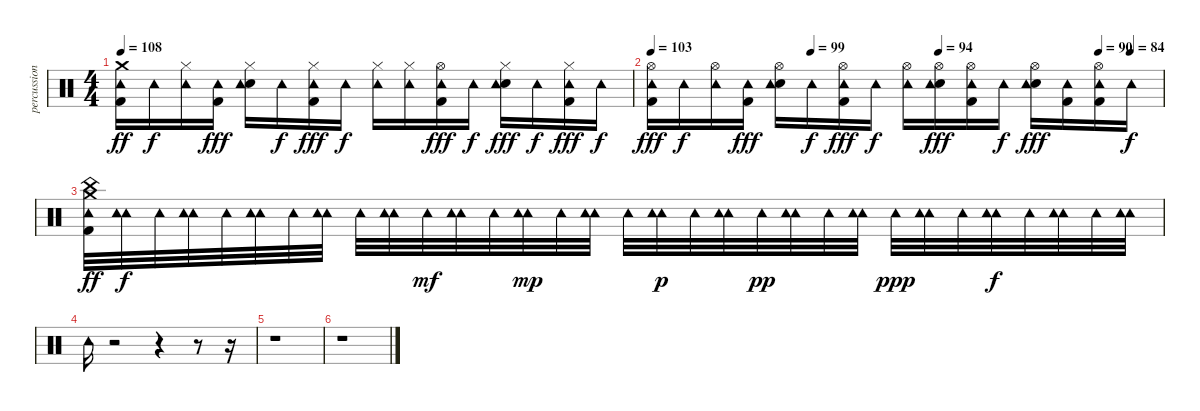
\track ("percussion" "percussion") {instrument percussion}
\staff {score}
\articulation defaults
\ts (4 4)
\tempo 108
\clef neutral
\ks c
("Kick (hit) 2" "Crash medium (hit)" "Tambourine (hit)").16{dy ff} "Tambourine (hit)".16{dy f} ("Hi-Hat (closed)" "Tambourine (hit)").16 ("Kick (hit) 2" "Tambourine (hit)").16{dy fff} ("Hi-Hat (closed)" "Electric Snare (hit)" "Tambourine (hit)").16 "Tambourine (hit)".16{dy f} ("Hi-Hat (closed)" "Kick (hit) 2" "Tambourine (hit)").16{dy fff} "Tambourine (hit)".16{dy f} ("Hi-Hat (closed)" "Tambourine (hit)").16 ("Hi-Hat (closed)" "Tambourine (hit)").16 ("Kick (hit) 2" "Hi-Hat (open)" "Tambourine (hit)").16{dy fff} "Tambourine (hit)".16{dy f} ("Hi-Hat (closed)" "Electric Snare (hit)" "Tambourine (hit)").16{dy fff} "Tambourine (hit)".16{dy f} ("Kick (hit) 2" "Hi-Hat (closed)" "Tambourine (hit)").16{dy fff} "Tambourine (hit)".16{dy f} |
\tempo 103
\tempo (99 0.3125)
\tempo (94 0.5625)
\tempo (90 0.875)
\tempo (84 0.9375)
("Kick (hit) 2" "Hi-Hat (open)" "Tambourine (hit)").16{dy fff} "Tambourine (hit)".16{dy f} ("Hi-Hat (open)" "Tambourine (hit)").16 ("Kick (hit) 2" "Tambourine (hit)").16{dy fff} ("Hi-Hat (open)" "Electric Snare (hit)" "Tambourine (hit)").16 "Tambourine (hit)".16{dy f} ("Hi-Hat (open)" "Kick (hit) 2" "Tambourine (hit)").16{dy fff} "Tambourine (hit)".16{dy f} ("Hi-Hat (open)" "Tambourine (hit)").16 ("Electric Snare (hit)" "Hi-Hat (open)" "Tambourine (hit)").16{dy fff} ("Kick (hit) 2" "Hi-Hat (open)" "Tambourine (hit)").16 "Tambourine (hit)".16{dy f} ("Hi-Hat (open)" "Electric Snare (hit)" "Tambourine (hit)").16{dy fff} ("Kick (hit) 2" "Tambourine (hit)").16 ("Kick (hit) 2" "Hi-Hat (open)" "Tambourine (hit)").16 "Tambourine (hit)".16{dy f} |
("Kick (hit) 2" "China (hit)" "Crash medium (hit)" "Tambourine (hit)").32{dy ff} ("Tambourine (hit)" "Tambourine (hit)").32{dy f} "Tambourine (hit)".32 ("Tambourine (hit)" "Tambourine (hit)").32 "Tambourine (hit)".32 ("Tambourine (hit)" "Tambourine (hit)").32 "Tambourine (hit)".32 ("Tambourine (hit)" "Tambourine (hit)").32 "Tambourine (hit)".32 ("Tambourine (hit)" "Tambourine (hit)").32 "Tambourine (hit)".32{dy mf} ("Tambourine (hit)" "Tambourine (hit)").32 "Tambourine (hit)".32 ("Tambourine (hit)" "Tambourine (hit)").32{dy mp} "Tambourine (hit)".32 ("Tambourine (hit)" "Tambourine (hit)").32 "Tambourine (hit)".32 ("Tambourine (hit)" "Tambourine (hit)").32{dy p} "Tambourine (hit)".32 ("Tambourine (hit)" "Tambourine (hit)").32 "Tambourine (hit)".32{dy pp} ("Tambourine (hit)" "Tambourine (hit)").32 "Tambourine (hit)".32 ("Tambourine (hit)" "Tambourine (hit)").32 "Tambourine (hit)".32{dy ppp} ("Tambourine (hit)" "Tambourine (hit)").32 "Tambourine (hit)".32 ("Tambourine (hit)" "Tambourine (hit)").32{dy f} "Tambourine (hit)".32 ("Tambourine (hit)" "Tambourine (hit)").32 "Tambourine (hit)".32 ("Tambourine (hit)" "Tambourine (hit)").32 |
"Tambourine (hit)".16 r.2 r.4 r.8 r.16 |
r.1 |
r.1
